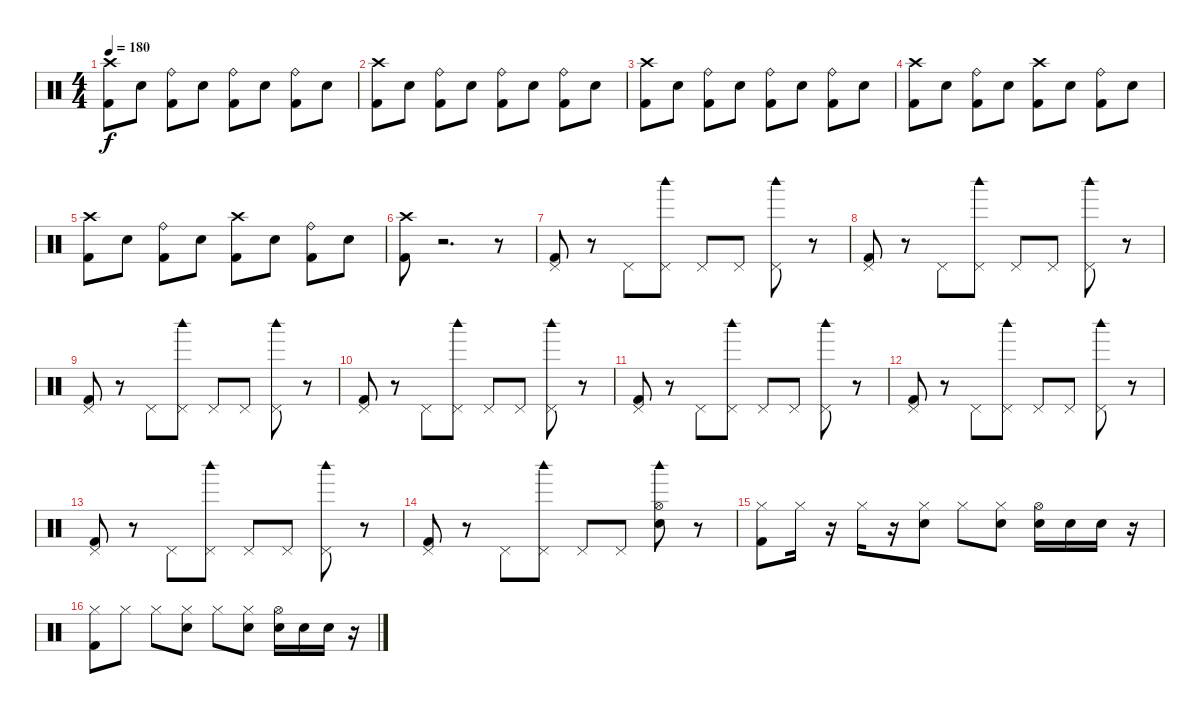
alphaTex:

\track "" {instrument percussion}
\staff {score}
\articulation defaults
\ts (4 4)
\tempo 180
\clef neutral
\ks c
("Crash high (hit)" "Kick (hit) 2").8{dy f} "Electric Snare (hit)".8 ("Ride (bell)" "Kick (hit) 2").8 "Electric Snare (hit)".8 ("Ride (bell)" "Kick (hit) 2").8 "Electric Snare (hit)".8 ("Ride (bell)" "Kick (hit) 2").8 "Electric Snare (hit)".8 |
("Crash high (hit)" "Kick (hit) 2").8 "Electric Snare (hit)".8 ("Ride (bell)" "Kick (hit) 2").8 "Electric Snare (hit)".8 ("Ride (bell)" "Kick (hit) 2").8 "Electric Snare (hit)".8 ("Ride (bell)" "Kick (hit) 2").8 "Electric Snare (hit)".8 |
("Crash high (hit)" "Kick (hit) 2").8 "Electric Snare (hit)".8 ("Ride (bell)" "Kick (hit) 2").8 "Electric Snare (hit)".8 ("Ride (bell)" "Kick (hit) 2").8 "Electric Snare (hit)".8 ("Ride (bell)" "Kick (hit) 2").8 "Electric Snare (hit)".8 |
("Crash high (hit)" "Kick (hit) 2").8 "Electric Snare (hit)".8 ("Ride (bell)" "Kick (hit) 2").8 "Electric Snare (hit)".8 ("Crash high (hit)" "Kick (hit) 2").8 "Electric Snare (hit)".8 ("Ride (bell)" "Kick (hit) 2").8 "Electric Snare (hit)".8 |
("Crash high (hit)" "Kick (hit) 2").8 "Electric Snare (hit)".8 ("Ride (bell)" "Kick (hit) 2").8 "Electric Snare (hit)".8 ("Crash high (hit)" "Kick (hit) 2").8 "Electric Snare (hit)".8 ("Ride (bell)" "Kick (hit) 2").8 "Electric Snare (hit)".8 |
("Kick (hit) 2" "Crash high (hit)").8 r.2{d} r.8 |
("Pedal Hi-Hat (hit)" "Kick (hit) 2").8 r.8 "Pedal Hi-Hat (hit)".8 ("Pedal Hi-Hat (hit)" "Woodblock high (hit)").8 "Pedal Hi-Hat (hit)".8 "Pedal Hi-Hat (hit)".8 ("Pedal Hi-Hat (hit)" "Woodblock high (hit)").8 r.8 |
("Pedal Hi-Hat (hit)" "Kick (hit) 2").8 r.8 "Pedal Hi-Hat (hit)".8 ("Pedal Hi-Hat (hit)" "Woodblock high (hit)").8 "Pedal Hi-Hat (hit)".8 "Pedal Hi-Hat (hit)".8 ("Pedal Hi-Hat (hit)" "Woodblock high (hit)").8 r.8 |
("Pedal Hi-Hat (hit)" "Kick (hit) 2").8 r.8 "Pedal Hi-Hat (hit)".8 ("Pedal Hi-Hat (hit)" "Woodblock high (hit)").8 "Pedal Hi-Hat (hit)".8 "Pedal Hi-Hat (hit)".8 ("Pedal Hi-Hat (hit)" "Woodblock high (hit)").8 r.8 |
("Pedal Hi-Hat (hit)" "Kick (hit) 2").8 r.8 "Pedal Hi-Hat (hit)".8 ("Pedal Hi-Hat (hit)" "Woodblock high (hit)").8 "Pedal Hi-Hat (hit)".8 "Pedal Hi-Hat (hit)".8 ("Pedal Hi-Hat (hit)" "Woodblock high (hit)").8 r.8 |
("Pedal Hi-Hat (hit)" "Kick (hit) 2").8 r.8 "Pedal Hi-Hat (hit)".8 ("Pedal Hi-Hat (hit)" "Woodblock high (hit)").8 "Pedal Hi-Hat (hit)".8 "Pedal Hi-Hat (hit)".8 ("Pedal Hi-Hat (hit)" "Woodblock high (hit)").8 r.8 |
("Pedal Hi-Hat (hit)" "Kick (hit) 2").8 r.8 "Pedal Hi-Hat (hit)".8 ("Pedal Hi-Hat (hit)" "Woodblock high (hit)").8 "Pedal Hi-Hat (hit)".8 "Pedal Hi-Hat (hit)".8 ("Pedal Hi-Hat (hit)" "Woodblock high (hit)").8 r.8 |
("Pedal Hi-Hat (hit)" "Kick (hit) 2").8 r.8 "Pedal Hi-Hat (hit)".8 ("Pedal Hi-Hat (hit)" "Woodblock high (hit)").8 "Pedal Hi-Hat (hit)".8 "Pedal Hi-Hat (hit)".8 ("Pedal Hi-Hat (hit)" "Woodblock high (hit)").8 r.8 |
("Pedal Hi-Hat (hit)" "Kick (hit) 2").8 r.8 "Pedal Hi-Hat (hit)".8 ("Pedal Hi-Hat (hit)" "Woodblock high (hit)").8 "Pedal Hi-Hat (hit)".8 "Pedal Hi-Hat (hit)".8 ("Hi-Hat (open)" "Electric Snare (hit)" "Woodblock high (hit)").8 r.8 |
("Hi-Hat (closed)" "Kick (hit) 2").8 "Hi-Hat (closed)".16 r.16 "Hi-Hat (closed)".16 r.16 ("Hi-Hat (closed)" "Electric Snare (hit)").8 "Hi-Hat (closed)".8 ("Hi-Hat (closed)" "Electric Snare (hit)").8 ("Hi-Hat (open)" "Electric Snare (hit)").16 "Electric Snare (hit)".16 "Electric Snare (hit)".16 r.16 |
("Hi-Hat (closed)" "Kick (hit) 2").8 "Hi-Hat (closed)".8 "Hi-Hat (closed)".8 ("Hi-Hat (closed)" "Electric Snare (hit)").8 "Hi-Hat (closed)".8 ("Hi-Hat (closed)" "Electric Snare (hit)").8 ("Hi-Hat (open)" "Electric Snare (hit)").16 "Electric Snare (hit)".16 "Electric Snare (hit)".16 r.16
